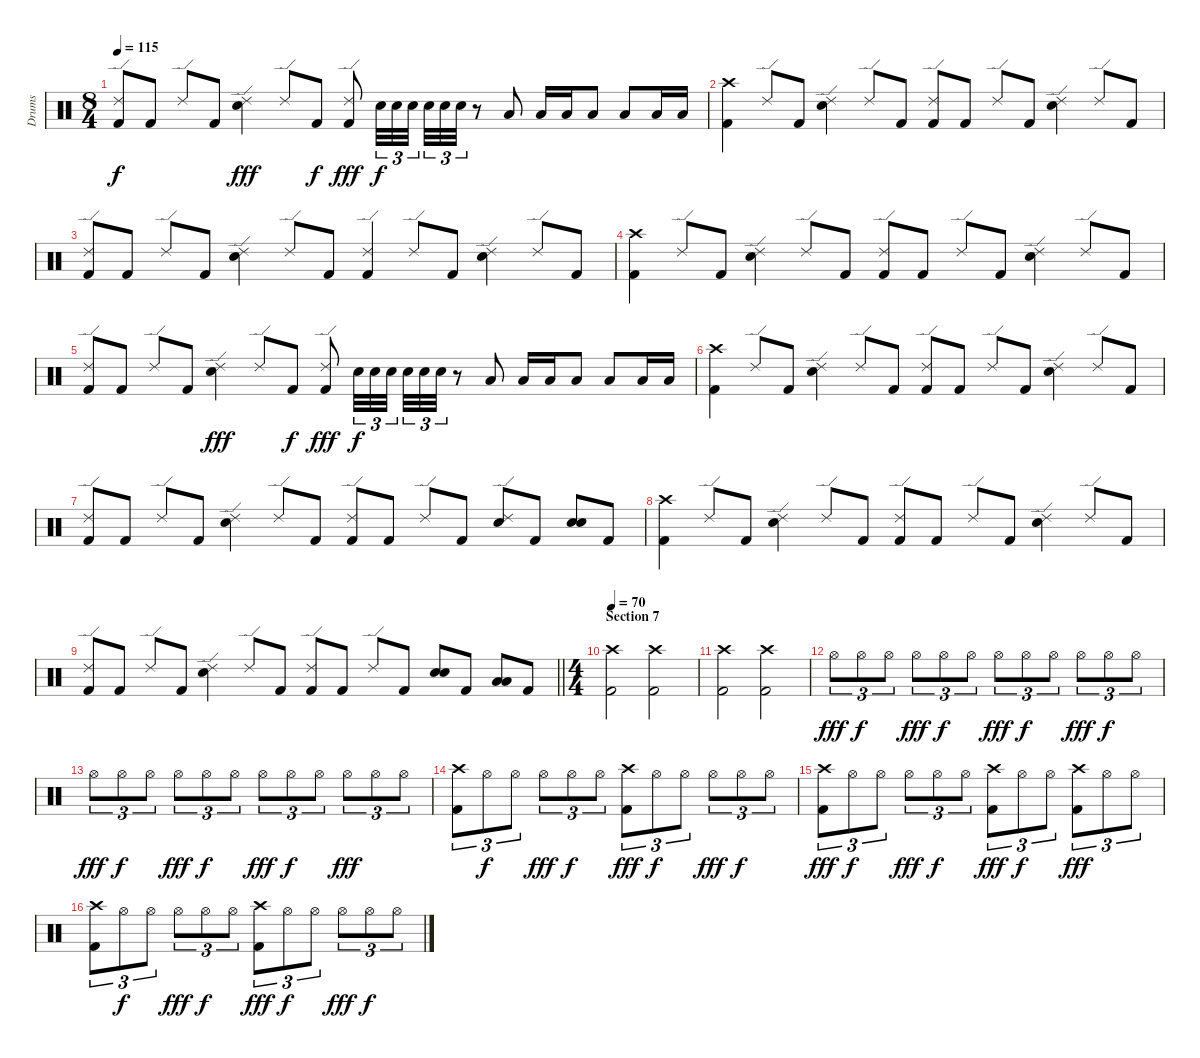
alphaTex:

\track ("Drums" "Drums") {instrument percussion}
\staff {score}
\articulation defaults
\ts (8 4)
\tempo 115
\clef neutral
\ks c
("Ride (edge) 2" "Kick (hit) 2").8{dy f} "Kick (hit) 2".8 "Ride (edge) 2".8 "Kick (hit) 2".8 ("Ride (edge) 2" "Electric Snare (hit)").4{dy fff} "Ride (edge) 2".8 "Kick (hit) 2".8{dy f} ("Ride (edge) 2" "Kick (hit) 2").8{dy fff} "Electric Snare (hit)".32{tu (3 2) dy f} "Electric Snare (hit)".32{tu (3 2)} "Electric Snare (hit)".32{tu (3 2)} "Electric Snare (hit)".32{tu (3 2)} "Electric Snare (hit)".32{tu (3 2)} "Electric Snare (hit)".32{tu (3 2)} r.8 "Low Tom (hit)".8 "Low Tom (hit)".16 "Low Tom (hit)".16 "Low Tom (hit)".8 "Low Tom (hit)".8 "Low Tom (hit)".16 "Low Tom (hit)".16 |
("Crash high (hit)" "Kick (hit) 2").4 "Ride (edge) 2".8 "Kick (hit) 2".8 ("Ride (edge) 2" "Electric Snare (hit)").4 "Ride (edge) 2".8 "Kick (hit) 2".8 ("Ride (edge) 2" "Kick (hit) 2").8 "Kick (hit) 2".8 "Ride (edge) 2".8 "Kick (hit) 2".8 ("Ride (edge) 2" "Electric Snare (hit)").4 "Ride (edge) 2".8 "Kick (hit) 2".8 |
("Ride (edge) 2" "Kick (hit) 2").8 "Kick (hit) 2".8 "Ride (edge) 2".8 "Kick (hit) 2".8 ("Ride (edge) 2" "Electric Snare (hit)").4 "Ride (edge) 2".8 "Kick (hit) 2".8 ("Ride (edge) 2" "Kick (hit) 2").4 "Ride (edge) 2".8 "Kick (hit) 2".8 ("Ride (edge) 2" "Electric Snare (hit)").4 "Ride (edge) 2".8 "Kick (hit) 2".8 |
("Crash high (hit)" "Kick (hit) 2").4 "Ride (edge) 2".8 "Kick (hit) 2".8 ("Ride (edge) 2" "Electric Snare (hit)").4 "Ride (edge) 2".8 "Kick (hit) 2".8 ("Ride (edge) 2" "Kick (hit) 2").8 "Kick (hit) 2".8 "Ride (edge) 2".8 "Kick (hit) 2".8 ("Ride (edge) 2" "Electric Snare (hit)").4 "Ride (edge) 2".8 "Kick (hit) 2".8 |
("Ride (edge) 2" "Kick (hit) 2").8 "Kick (hit) 2".8 "Ride (edge) 2".8 "Kick (hit) 2".8 ("Ride (edge) 2" "Electric Snare (hit)").4{dy fff} "Ride (edge) 2".8 "Kick (hit) 2".8{dy f} ("Ride (edge) 2" "Kick (hit) 2").8{dy fff} "Electric Snare (hit)".32{tu (3 2) dy f} "Electric Snare (hit)".32{tu (3 2)} "Electric Snare (hit)".32{tu (3 2)} "Electric Snare (hit)".32{tu (3 2)} "Electric Snare (hit)".32{tu (3 2)} "Electric Snare (hit)".32{tu (3 2)} r.8 "Low Tom (hit)".8 "Low Tom (hit)".16 "Low Tom (hit)".16 "Low Tom (hit)".8 "Low Tom (hit)".8 "Low Tom (hit)".16 "Low Tom (hit)".16 |
("Crash high (hit)" "Kick (hit) 2").4 "Ride (edge) 2".8 "Kick (hit) 2".8 ("Ride (edge) 2" "Electric Snare (hit)").4 "Ride (edge) 2".8 "Kick (hit) 2".8 ("Ride (edge) 2" "Kick (hit) 2").8 "Kick (hit) 2".8 "Ride (edge) 2".8 "Kick (hit) 2".8 ("Ride (edge) 2" "Electric Snare (hit)").4 "Ride (edge) 2".8 "Kick (hit) 2".8 |
("Ride (edge) 2" "Kick (hit) 2").8 "Kick (hit) 2".8 "Ride (edge) 2".8 "Kick (hit) 2".8 ("Ride (edge) 2" "Electric Snare (hit)").4 "Ride (edge) 2".8 "Kick (hit) 2".8 ("Ride (edge) 2" "Kick (hit) 2").8 "Kick (hit) 2".8 "Ride (edge) 2".8 "Kick (hit) 2".8 ("Ride (edge) 2" "Electric Snare (hit)").8 "Kick (hit) 2".8 ("Electric Snare (hit)" "Electric Snare (hit)").8{bu 60} "Kick (hit) 2".8 |
("Crash high (hit)" "Kick (hit) 2").4 "Ride (edge) 2".8 "Kick (hit) 2".8 ("Ride (edge) 2" "Electric Snare (hit)").4 "Ride (edge) 2".8 "Kick (hit) 2".8 ("Ride (edge) 2" "Kick (hit) 2").8 "Kick (hit) 2".8 "Ride (edge) 2".8 "Kick (hit) 2".8 ("Ride (edge) 2" "Electric Snare (hit)").4 "Ride (edge) 2".8 "Kick (hit) 2".8 |
\barLineRight lightlight
("Ride (edge) 2" "Kick (hit) 2").8 "Kick (hit) 2".8 "Ride (edge) 2".8 "Kick (hit) 2".8 ("Ride (edge) 2" "Electric Snare (hit)").4 "Ride (edge) 2".8 "Kick (hit) 2".8 ("Ride (edge) 2" "Kick (hit) 2").8 "Kick (hit) 2".8 "Ride (edge) 2".8 "Kick (hit) 2".8 ("Electric Snare (hit)" "Electric Snare (hit)").8{bu 60} "Kick (hit) 2".8 ("Low Tom (hit)" "Low Tom (hit)").8{bu 60} "Kick (hit) 2".8 |
\ts (4 4)
\section ("" "Section 7")
\tempo 70
("Crash high (hit)" "Kick (hit) 2").2 ("Crash high (hit)" "Kick (hit) 2").2 |
("Crash high (hit)" "Kick (hit) 2").2 ("Crash high (hit)" "Kick (hit) 2").2 |
"Hi-Hat (open)".8{tu (3 2) dy fff} "Hi-Hat (open)".8{tu (3 2) dy f} "Hi-Hat (open)".8{tu (3 2)} "Hi-Hat (open)".8{tu (3 2) dy fff} "Hi-Hat (open)".8{tu (3 2) dy f} "Hi-Hat (open)".8{tu (3 2)} "Hi-Hat (open)".8{tu (3 2) dy fff} "Hi-Hat (open)".8{tu (3 2) dy f} "Hi-Hat (open)".8{tu (3 2)} "Hi-Hat (open)".8{tu (3 2) dy fff} "Hi-Hat (open)".8{tu (3 2) dy f} "Hi-Hat (open)".8{tu (3 2)} |
"Hi-Hat (open)".8{tu (3 2) dy fff} "Hi-Hat (open)".8{tu (3 2) dy f} "Hi-Hat (open)".8{tu (3 2)} "Hi-Hat (open)".8{tu (3 2) dy fff} "Hi-Hat (open)".8{tu (3 2) dy f} "Hi-Hat (open)".8{tu (3 2)} "Hi-Hat (open)".8{tu (3 2) dy fff} "Hi-Hat (open)".8{tu (3 2) dy f} "Hi-Hat (open)".8{tu (3 2)} "Hi-Hat (open)".8{tu (3 2) dy fff} "Hi-Hat (open)".8{tu (3 2)} "Hi-Hat (open)".8{tu (3 2)} |
("Crash high (hit)" "Kick (hit) 2").8{tu (3 2)} "Hi-Hat (open)".8{tu (3 2) dy f} "Hi-Hat (open)".8{tu (3 2)} "Hi-Hat (open)".8{tu (3 2) dy fff} "Hi-Hat (open)".8{tu (3 2) dy f} "Hi-Hat (open)".8{tu (3 2)} ("Crash high (hit)" "Kick (hit) 2").8{tu (3 2) dy fff} "Hi-Hat (open)".8{tu (3 2) dy f} "Hi-Hat (open)".8{tu (3 2)} "Hi-Hat (open)".8{tu (3 2) dy fff} "Hi-Hat (open)".8{tu (3 2) dy f} "Hi-Hat (open)".8{tu (3 2)} |
("Crash high (hit)" "Kick (hit) 2").8{tu (3 2) dy fff} "Hi-Hat (open)".8{tu (3 2) dy f} "Hi-Hat (open)".8{tu (3 2)} "Hi-Hat (open)".8{tu (3 2) dy fff} "Hi-Hat (open)".8{tu (3 2) dy f} "Hi-Hat (open)".8{tu (3 2)} ("Crash high (hit)" "Kick (hit) 2").8{tu (3 2) dy fff} "Hi-Hat (open)".8{tu (3 2) dy f} "Hi-Hat (open)".8{tu (3 2)} ("Crash high (hit)" "Kick (hit) 2").8{tu (3 2) dy fff} "Hi-Hat (open)".8{tu (3 2)} "Hi-Hat (open)".8{tu (3 2)} |
("Crash high (hit)" "Kick (hit) 2").8{tu (3 2)} "Hi-Hat (open)".8{tu (3 2) dy f} "Hi-Hat (open)".8{tu (3 2)} "Hi-Hat (open)".8{tu (3 2) dy fff} "Hi-Hat (open)".8{tu (3 2) dy f} "Hi-Hat (open)".8{tu (3 2)} ("Crash high (hit)" "Kick (hit) 2").8{tu (3 2) dy fff} "Hi-Hat (open)".8{tu (3 2) dy f} "Hi-Hat (open)".8{tu (3 2)} "Hi-Hat (open)".8{tu (3 2) dy fff} "Hi-Hat (open)".8{tu (3 2) dy f} "Hi-Hat (open)".8{tu (3 2)}
